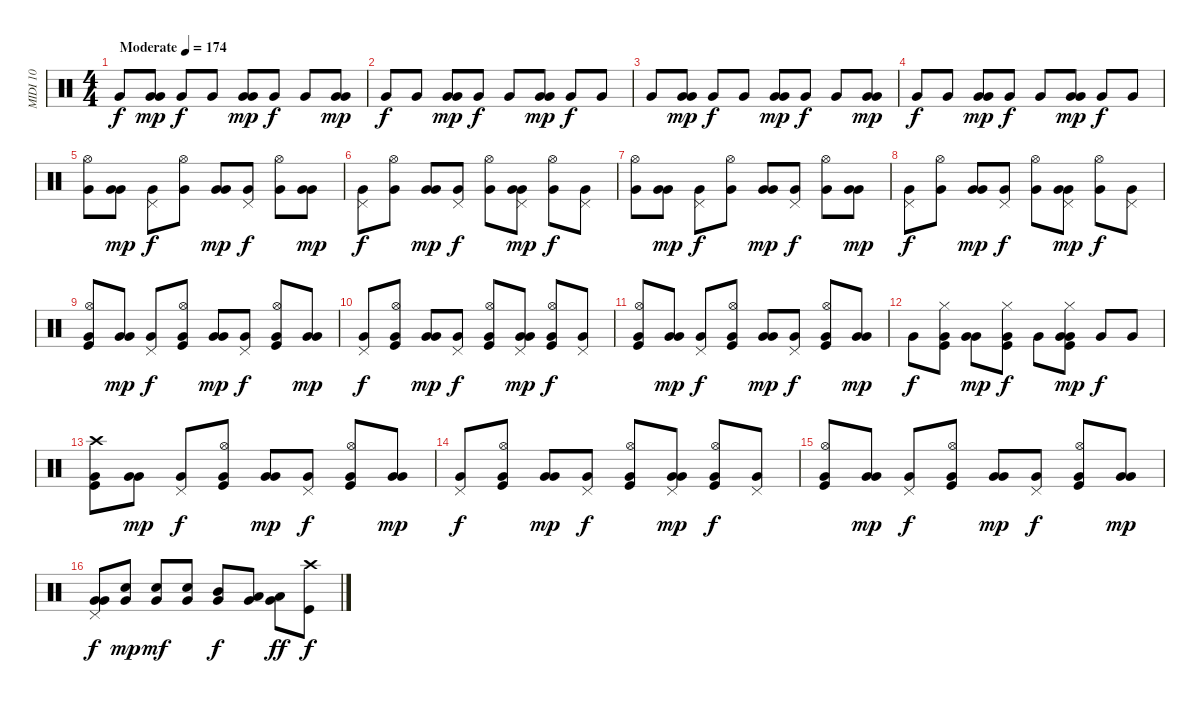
\track ("MIDI 10" "MIDI 10") {instrument percussion}
\staff {score}
\articulation defaults
\ts (4 4)
\tempo (174 "Moderate")
\clef neutral
\ks c "Very Low Tom (hit)".8{dy f}
("Very Low Tom (hit)" "Very Low Tom (hit)").8{dy mp} "Very Low Tom (hit)".8{dy f} "Very Low Tom (hit)".8 ("Very Low Tom (hit)" "Very Low Tom (hit)").8{dy mp} "Very Low Tom (hit)".8{dy f} "Very Low Tom (hit)".8 ("Very Low Tom (hit)" "Very Low Tom (hit)").8{dy mp} |
"Very Low Tom (hit)".8{dy f} "Very Low Tom (hit)".8 ("Very Low Tom (hit)" "Very Low Tom (hit)").8{dy mp} "Very Low Tom (hit)".8{dy f} "Very Low Tom (hit)".8 ("Very Low Tom (hit)" "Very Low Tom (hit)").8{dy mp} "Very Low Tom (hit)".8{dy f} "Very Low Tom (hit)".8 |
"Very Low Tom (hit)".8 ("Very Low Tom (hit)" "Very Low Tom (hit)").8{dy mp} "Very Low Tom (hit)".8{dy f} "Very Low Tom (hit)".8 ("Very Low Tom (hit)" "Very Low Tom (hit)").8{dy mp} "Very Low Tom (hit)".8{dy f} "Very Low Tom (hit)".8 ("Very Low Tom (hit)" "Very Low Tom (hit)").8{dy mp} |
"Very Low Tom (hit)".8{dy f} "Very Low Tom (hit)".8 ("Very Low Tom (hit)" "Very Low Tom (hit)").8{dy mp} "Very Low Tom (hit)".8{dy f} "Very Low Tom (hit)".8 ("Very Low Tom (hit)" "Very Low Tom (hit)").8{dy mp} "Very Low Tom (hit)".8{dy f} "Very Low Tom (hit)".8 |
("Very Low Tom (hit)" "Hi-Hat (open)").8 ("Very Low Tom (hit)" "Very Low Tom (hit)").8{dy mp} ("Very Low Tom (hit)" "Pedal Hi-Hat (hit)").8{dy f} ("Very Low Tom (hit)" "Hi-Hat (open)").8 ("Very Low Tom (hit)" "Very Low Tom (hit)").8{dy mp} ("Very Low Tom (hit)" "Pedal Hi-Hat (hit)").8{dy f} ("Very Low Tom (hit)" "Hi-Hat (open)").8 ("Very Low Tom (hit)" "Very Low Tom (hit)").8{dy mp} |
("Very Low Tom (hit)" "Pedal Hi-Hat (hit)").8{dy f} ("Very Low Tom (hit)" "Hi-Hat (open)").8 ("Very Low Tom (hit)" "Very Low Tom (hit)").8{dy mp} ("Very Low Tom (hit)" "Pedal Hi-Hat (hit)").8{dy f} ("Very Low Tom (hit)" "Hi-Hat (open)").8 ("Very Low Tom (hit)" "Pedal Hi-Hat (hit)" "Very Low Tom (hit)").8{dy mp} ("Very Low Tom (hit)" "Hi-Hat (open)").8{dy f} ("Very Low Tom (hit)" "Pedal Hi-Hat (hit)").8 |
("Very Low Tom (hit)" "Hi-Hat (open)").8 ("Very Low Tom (hit)" "Very Low Tom (hit)").8{dy mp} ("Very Low Tom (hit)" "Pedal Hi-Hat (hit)").8{dy f} ("Very Low Tom (hit)" "Hi-Hat (open)").8 ("Very Low Tom (hit)" "Very Low Tom (hit)").8{dy mp} ("Very Low Tom (hit)" "Pedal Hi-Hat (hit)").8{dy f} ("Very Low Tom (hit)" "Hi-Hat (open)").8 ("Very Low Tom (hit)" "Very Low Tom (hit)").8{dy mp} |
("Very Low Tom (hit)" "Pedal Hi-Hat (hit)").8{dy f} ("Very Low Tom (hit)" "Hi-Hat (open)").8 ("Very Low Tom (hit)" "Very Low Tom (hit)").8{dy mp} ("Very Low Tom (hit)" "Pedal Hi-Hat (hit)").8{dy f} ("Very Low Tom (hit)" "Hi-Hat (open)").8 ("Very Low Tom (hit)" "Pedal Hi-Hat (hit)" "Very Low Tom (hit)").8{dy mp} ("Very Low Tom (hit)" "Hi-Hat (open)").8{dy f} ("Very Low Tom (hit)" "Pedal Hi-Hat (hit)").8 |
("Very Low Tom (hit)" "Hi-Hat (open)" "Kick (hit)").8 ("Very Low Tom (hit)" "Very Low Tom (hit)").8{dy mp} ("Very Low Tom (hit)" "Pedal Hi-Hat (hit)").8{dy f} ("Very Low Tom (hit)" "Hi-Hat (open)" "Kick (hit)").8 ("Very Low Tom (hit)" "Very Low Tom (hit)").8{dy mp} ("Very Low Tom (hit)" "Pedal Hi-Hat (hit)").8{dy f} ("Very Low Tom (hit)" "Hi-Hat (open)" "Kick (hit)").8 ("Very Low Tom (hit)" "Very Low Tom (hit)").8{dy mp} |
("Very Low Tom (hit)" "Pedal Hi-Hat (hit)").8{dy f} ("Very Low Tom (hit)" "Hi-Hat (open)" "Kick (hit)").8 ("Very Low Tom (hit)" "Very Low Tom (hit)").8{dy mp} ("Very Low Tom (hit)" "Pedal Hi-Hat (hit)").8{dy f} ("Very Low Tom (hit)" "Hi-Hat (open)" "Kick (hit)").8 ("Very Low Tom (hit)" "Pedal Hi-Hat (hit)" "Very Low Tom (hit)").8{dy mp} ("Very Low Tom (hit)" "Hi-Hat (open)" "Kick (hit)").8{dy f} ("Very Low Tom (hit)" "Pedal Hi-Hat (hit)").8 |
("Very Low Tom (hit)" "Hi-Hat (open)" "Kick (hit)").8 ("Very Low Tom (hit)" "Very Low Tom (hit)").8{dy mp} ("Very Low Tom (hit)" "Pedal Hi-Hat (hit)").8{dy f} ("Very Low Tom (hit)" "Hi-Hat (open)" "Kick (hit)").8 ("Very Low Tom (hit)" "Very Low Tom (hit)").8{dy mp} ("Very Low Tom (hit)" "Pedal Hi-Hat (hit)").8{dy f} ("Very Low Tom (hit)" "Hi-Hat (open)" "Kick (hit)").8 ("Very Low Tom (hit)" "Very Low Tom (hit)").8{dy mp} |
"Very Low Tom (hit)".8{dy f} ("Very Low Tom (hit)" "Kick (hit)" "Hi-Hat (closed)").8 ("Very Low Tom (hit)" "Very Low Tom (hit)").8{dy mp} ("Very Low Tom (hit)" "Kick (hit)" "Hi-Hat (closed)").8{dy f} "Very Low Tom (hit)".8 ("Very Low Tom (hit)" "Kick (hit)" "Hi-Hat (closed)" "Very Low Tom (hit)").8{dy mp} "Very Low Tom (hit)".8{dy f} "Very Low Tom (hit)".8 |
("Very Low Tom (hit)" "Kick (hit)" "Crash high (hit)").8 ("Very Low Tom (hit)" "Very Low Tom (hit)").8{dy mp} ("Very Low Tom (hit)" "Pedal Hi-Hat (hit)").8{dy f} ("Very Low Tom (hit)" "Hi-Hat (open)" "Kick (hit)").8 ("Very Low Tom (hit)" "Very Low Tom (hit)").8{dy mp} ("Very Low Tom (hit)" "Pedal Hi-Hat (hit)").8{dy f} ("Very Low Tom (hit)" "Hi-Hat (open)" "Kick (hit)").8 ("Very Low Tom (hit)" "Very Low Tom (hit)").8{dy mp} |
("Very Low Tom (hit)" "Pedal Hi-Hat (hit)").8{dy f} ("Very Low Tom (hit)" "Hi-Hat (open)" "Kick (hit)").8 ("Very Low Tom (hit)" "Very Low Tom (hit)").8{dy mp} ("Very Low Tom (hit)" "Pedal Hi-Hat (hit)").8{dy f} ("Very Low Tom (hit)" "Hi-Hat (open)" "Kick (hit)").8 ("Very Low Tom (hit)" "Pedal Hi-Hat (hit)" "Very Low Tom (hit)").8{dy mp} ("Very Low Tom (hit)" "Hi-Hat (open)" "Kick (hit)").8{dy f} ("Very Low Tom (hit)" "Pedal Hi-Hat (hit)").8 |
("Very Low Tom (hit)" "Hi-Hat (open)" "Kick (hit)").8 ("Very Low Tom (hit)" "Very Low Tom (hit)").8{dy mp} ("Very Low Tom (hit)" "Pedal Hi-Hat (hit)").8{dy f} ("Very Low Tom (hit)" "Hi-Hat (open)" "Kick (hit)").8 ("Very Low Tom (hit)" "Very Low Tom (hit)").8{dy mp} ("Very Low Tom (hit)" "Pedal Hi-Hat (hit)").8{dy f} ("Very Low Tom (hit)" "Hi-Hat (open)" "Kick (hit)").8 ("Very Low Tom (hit)" "Very Low Tom (hit)").8{dy mp} |
("Very Low Tom (hit)" "Pedal Hi-Hat (hit)" "Very Low Tom (hit)").8{dy f} ("Electric Snare (hit)" "Very Low Tom (hit)").8{dy mp} ("Electric Snare (hit)" "Very Low Tom (hit)").8{dy mf} ("Electric Snare (hit)" "Very Low Tom (hit)").8 ("Mid Tom (hit)" "Very Low Tom (hit)").8{dy f} ("Low Tom (hit)" "Very Low Tom (hit)").8 ("Very Low Tom (hit)" "Low Floor Tom (hit)").8{dy ff} ("Kick (hit)" "Crash high (hit)").8{dy f}
